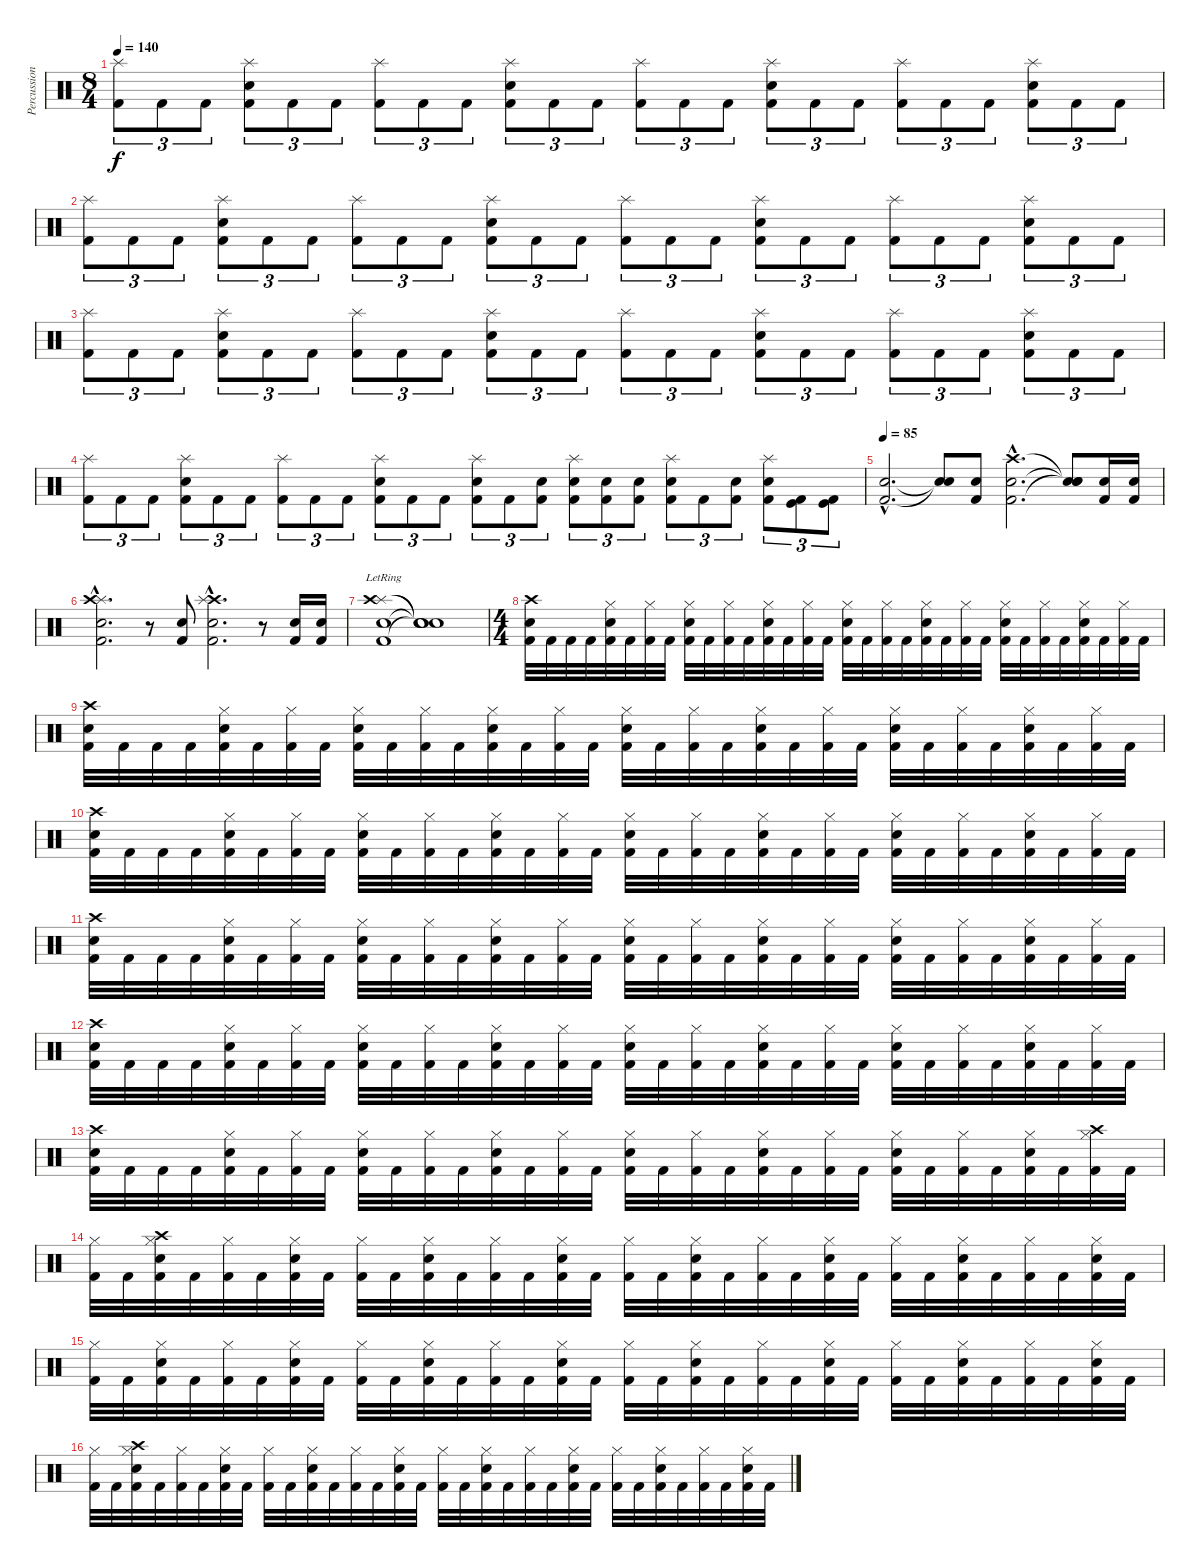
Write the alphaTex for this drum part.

\track ("Percussion" "Percussion") {instrument percussion}
\staff {score}
\articulation defaults
\ts (8 4)
\tempo 140
\clef neutral
\ks c
("Splash (hit)" "Kick (hit) 2").8{tu (3 2) dy f} "Kick (hit) 2".8{tu (3 2)} "Kick (hit) 2".8{tu (3 2)} ("Splash (hit)" "Snare (hit) 2" "Kick (hit) 2").8{tu (3 2)} "Kick (hit) 2".8{tu (3 2)} "Kick (hit) 2".8{tu (3 2)} ("Splash (hit)" "Kick (hit) 2").8{tu (3 2)} "Kick (hit) 2".8{tu (3 2)} "Kick (hit) 2".8{tu (3 2)} ("Splash (hit)" "Snare (hit) 2" "Kick (hit) 2").8{tu (3 2)} "Kick (hit) 2".8{tu (3 2)} "Kick (hit) 2".8{tu (3 2)} ("Splash (hit)" "Kick (hit) 2").8{tu (3 2)} "Kick (hit) 2".8{tu (3 2)} "Kick (hit) 2".8{tu (3 2)} ("Splash (hit)" "Snare (hit) 2" "Kick (hit) 2").8{tu (3 2)} "Kick (hit) 2".8{tu (3 2)} "Kick (hit) 2".8{tu (3 2)} ("Splash (hit)" "Kick (hit) 2").8{tu (3 2)} "Kick (hit) 2".8{tu (3 2)} "Kick (hit) 2".8{tu (3 2)} ("Splash (hit)" "Snare (hit) 2" "Kick (hit) 2").8{tu (3 2)} "Kick (hit) 2".8{tu (3 2)} "Kick (hit) 2".8{tu (3 2)} |
("Splash (hit)" "Kick (hit) 2").8{tu (3 2)} "Kick (hit) 2".8{tu (3 2)} "Kick (hit) 2".8{tu (3 2)} ("Splash (hit)" "Snare (hit) 2" "Kick (hit) 2").8{tu (3 2)} "Kick (hit) 2".8{tu (3 2)} "Kick (hit) 2".8{tu (3 2)} ("Splash (hit)" "Kick (hit) 2").8{tu (3 2)} "Kick (hit) 2".8{tu (3 2)} "Kick (hit) 2".8{tu (3 2)} ("Splash (hit)" "Snare (hit) 2" "Kick (hit) 2").8{tu (3 2)} "Kick (hit) 2".8{tu (3 2)} "Kick (hit) 2".8{tu (3 2)} ("Splash (hit)" "Kick (hit) 2").8{tu (3 2)} "Kick (hit) 2".8{tu (3 2)} "Kick (hit) 2".8{tu (3 2)} ("Splash (hit)" "Snare (hit) 2" "Kick (hit) 2").8{tu (3 2)} "Kick (hit) 2".8{tu (3 2)} "Kick (hit) 2".8{tu (3 2)} ("Splash (hit)" "Kick (hit) 2").8{tu (3 2)} "Kick (hit) 2".8{tu (3 2)} "Kick (hit) 2".8{tu (3 2)} ("Splash (hit)" "Snare (hit) 2" "Kick (hit) 2").8{tu (3 2)} "Kick (hit) 2".8{tu (3 2)} "Kick (hit) 2".8{tu (3 2)} |
("Splash (hit)" "Kick (hit) 2").8{tu (3 2)} "Kick (hit) 2".8{tu (3 2)} "Kick (hit) 2".8{tu (3 2)} ("Splash (hit)" "Snare (hit) 2" "Kick (hit) 2").8{tu (3 2)} "Kick (hit) 2".8{tu (3 2)} "Kick (hit) 2".8{tu (3 2)} ("Splash (hit)" "Kick (hit) 2").8{tu (3 2)} "Kick (hit) 2".8{tu (3 2)} "Kick (hit) 2".8{tu (3 2)} ("Splash (hit)" "Snare (hit) 2" "Kick (hit) 2").8{tu (3 2)} "Kick (hit) 2".8{tu (3 2)} "Kick (hit) 2".8{tu (3 2)} ("Splash (hit)" "Kick (hit) 2").8{tu (3 2)} "Kick (hit) 2".8{tu (3 2)} "Kick (hit) 2".8{tu (3 2)} ("Splash (hit)" "Snare (hit) 2" "Kick (hit) 2").8{tu (3 2)} "Kick (hit) 2".8{tu (3 2)} "Kick (hit) 2".8{tu (3 2)} ("Splash (hit)" "Kick (hit) 2").8{tu (3 2)} "Kick (hit) 2".8{tu (3 2)} "Kick (hit) 2".8{tu (3 2)} ("Splash (hit)" "Snare (hit) 2" "Kick (hit) 2").8{tu (3 2)} "Kick (hit) 2".8{tu (3 2)} "Kick (hit) 2".8{tu (3 2)} |
("Splash (hit)" "Kick (hit) 2").8{tu (3 2)} "Kick (hit) 2".8{tu (3 2)} "Kick (hit) 2".8{tu (3 2)} ("Splash (hit)" "Snare (hit) 2" "Kick (hit) 2").8{tu (3 2)} "Kick (hit) 2".8{tu (3 2)} "Kick (hit) 2".8{tu (3 2)} ("Splash (hit)" "Kick (hit) 2").8{tu (3 2)} "Kick (hit) 2".8{tu (3 2)} "Kick (hit) 2".8{tu (3 2)} ("Splash (hit)" "Snare (hit) 2" "Kick (hit) 2").8{tu (3 2)} "Kick (hit) 2".8{tu (3 2)} "Kick (hit) 2".8{tu (3 2)} ("Splash (hit)" "Snare (hit) 2" "Kick (hit) 2").8{tu (3 2)} "Kick (hit) 2".8{tu (3 2)} ("Snare (hit) 2" "Kick (hit) 2").8{tu (3 2)} ("Splash (hit)" "Snare (hit) 2" "Kick (hit) 2").8{tu (3 2)} ("Snare (hit) 2" "Kick (hit) 2").8{tu (3 2)} ("Snare (hit) 2" "Kick (hit) 2").8{tu (3 2)} ("Splash (hit)" "Snare (hit) 2" "Kick (hit) 2").8{tu (3 2)} "Kick (hit) 2".8{tu (3 2)} ("Snare (hit) 2" "Kick (hit) 2").8{tu (3 2)} ("Splash (hit)" "Snare (hit) 2" "Kick (hit) 2").8{tu (3 2)} ("Kick (hit)" "Kick (hit) 2").8{tu (3 2)} ("Kick (hit)" "Kick (hit) 2").8{tu (3 2)} |
\tempo 85
("Snare (hit) 2"{hac} "Kick (hit) 2"{hac}).2{d} ("Snare (hit)"{t} "Snare (hit)"{t}).8 ("Snare (hit) 2" "Kick (hit) 2").8 ("Crash high (hit)"{hac} "Snare (hit) 2"{hac} "Kick (hit) 2"{hac}).2{d} ("Snare (hit)"{t} "Snare (hit)"{t} "Snare (hit)"{t}).8 ("Snare (hit) 2" "Kick (hit) 2").16 ("Snare (hit) 2" "Kick (hit) 2").16 |
("Kick (hit) 2"{hac} "Splash (hit)"{hac} "Crash high (hit)"{hac} "Snare (hit) 2"{hac}).2{d} r.8 ("Snare (hit) 2" "Kick (hit) 2").8 ("Crash high (hit)"{hac} "Splash (hit)"{hac} "Kick (hit) 2"{hac} "Snare (hit) 2"{hac}).2{d} r.8 ("Snare (hit) 2" "Kick (hit) 2").16 ("Snare (hit) 2" "Kick (hit) 2").16 |
("Kick (hit) 2" "Snare (hit) 2"{lr} "Splash (hit)"{lr} "Crash high (hit)"{lr}).1 ("Snare (hit)"{t} "Snare (hit)"{t} "Snare (hit)"{t} "Snare (hit)"{t}).1 |
\ts (4 4)
("Crash high (hit)" "Snare (hit) 2" "Kick (hit) 2").32 "Kick (hit) 2".32 "Kick (hit) 2".32 "Kick (hit) 2".32 ("Hi-Hat (closed)" "Snare (hit) 2" "Kick (hit) 2").32 "Kick (hit) 2".32 ("Hi-Hat (closed)" "Kick (hit) 2").32 "Kick (hit) 2".32 ("Hi-Hat (closed)" "Snare (hit) 2" "Kick (hit) 2").32 "Kick (hit) 2".32 ("Hi-Hat (closed)" "Kick (hit) 2").32 "Kick (hit) 2".32 ("Hi-Hat (closed)" "Snare (hit) 2" "Kick (hit) 2").32 "Kick (hit) 2".32 ("Hi-Hat (closed)" "Kick (hit) 2").32 "Kick (hit) 2".32 ("Hi-Hat (closed)" "Snare (hit) 2" "Kick (hit) 2").32 "Kick (hit) 2".32 ("Hi-Hat (closed)" "Kick (hit) 2").32 "Kick (hit) 2".32 ("Hi-Hat (closed)" "Snare (hit) 2" "Kick (hit) 2").32 "Kick (hit) 2".32 ("Hi-Hat (closed)" "Kick (hit) 2").32 "Kick (hit) 2".32 ("Hi-Hat (closed)" "Snare (hit) 2" "Kick (hit) 2").32 "Kick (hit) 2".32 ("Hi-Hat (closed)" "Kick (hit) 2").32 "Kick (hit) 2".32 ("Hi-Hat (closed)" "Snare (hit) 2" "Kick (hit) 2").32 "Kick (hit) 2".32 ("Hi-Hat (closed)" "Kick (hit) 2").32 "Kick (hit) 2".32 |
("Crash high (hit)" "Snare (hit) 2" "Kick (hit) 2").32 "Kick (hit) 2".32 "Kick (hit) 2".32 "Kick (hit) 2".32 ("Hi-Hat (closed)" "Snare (hit) 2" "Kick (hit) 2").32 "Kick (hit) 2".32 ("Hi-Hat (closed)" "Kick (hit) 2").32 "Kick (hit) 2".32 ("Hi-Hat (closed)" "Snare (hit) 2" "Kick (hit) 2").32 "Kick (hit) 2".32 ("Hi-Hat (closed)" "Kick (hit) 2").32 "Kick (hit) 2".32 ("Hi-Hat (closed)" "Snare (hit) 2" "Kick (hit) 2").32 "Kick (hit) 2".32 ("Hi-Hat (closed)" "Kick (hit) 2").32 "Kick (hit) 2".32 ("Hi-Hat (closed)" "Snare (hit) 2" "Kick (hit) 2").32 "Kick (hit) 2".32 ("Hi-Hat (closed)" "Kick (hit) 2").32 "Kick (hit) 2".32 ("Hi-Hat (closed)" "Snare (hit) 2" "Kick (hit) 2").32 "Kick (hit) 2".32 ("Hi-Hat (closed)" "Kick (hit) 2").32 "Kick (hit) 2".32 ("Hi-Hat (closed)" "Snare (hit) 2" "Kick (hit) 2").32 "Kick (hit) 2".32 ("Hi-Hat (closed)" "Kick (hit) 2").32 "Kick (hit) 2".32 ("Hi-Hat (closed)" "Snare (hit) 2" "Kick (hit) 2").32 "Kick (hit) 2".32 ("Hi-Hat (closed)" "Kick (hit) 2").32 "Kick (hit) 2".32 |
("Crash high (hit)" "Snare (hit) 2" "Kick (hit) 2").32 "Kick (hit) 2".32 "Kick (hit) 2".32 "Kick (hit) 2".32 ("Hi-Hat (closed)" "Snare (hit) 2" "Kick (hit) 2").32 "Kick (hit) 2".32 ("Hi-Hat (closed)" "Kick (hit) 2").32 "Kick (hit) 2".32 ("Hi-Hat (closed)" "Snare (hit) 2" "Kick (hit) 2").32 "Kick (hit) 2".32 ("Hi-Hat (closed)" "Kick (hit) 2").32 "Kick (hit) 2".32 ("Hi-Hat (closed)" "Snare (hit) 2" "Kick (hit) 2").32 "Kick (hit) 2".32 ("Hi-Hat (closed)" "Kick (hit) 2").32 "Kick (hit) 2".32 ("Hi-Hat (closed)" "Snare (hit) 2" "Kick (hit) 2").32 "Kick (hit) 2".32 ("Hi-Hat (closed)" "Kick (hit) 2").32 "Kick (hit) 2".32 ("Hi-Hat (closed)" "Snare (hit) 2" "Kick (hit) 2").32 "Kick (hit) 2".32 ("Hi-Hat (closed)" "Kick (hit) 2").32 "Kick (hit) 2".32 ("Hi-Hat (closed)" "Snare (hit) 2" "Kick (hit) 2").32 "Kick (hit) 2".32 ("Hi-Hat (closed)" "Kick (hit) 2").32 "Kick (hit) 2".32 ("Hi-Hat (closed)" "Snare (hit) 2" "Kick (hit) 2").32 "Kick (hit) 2".32 ("Hi-Hat (closed)" "Kick (hit) 2").32 "Kick (hit) 2".32 |
("Crash high (hit)" "Snare (hit) 2" "Kick (hit) 2").32 "Kick (hit) 2".32 "Kick (hit) 2".32 "Kick (hit) 2".32 ("Hi-Hat (closed)" "Snare (hit) 2" "Kick (hit) 2").32 "Kick (hit) 2".32 ("Hi-Hat (closed)" "Kick (hit) 2").32 "Kick (hit) 2".32 ("Hi-Hat (closed)" "Snare (hit) 2" "Kick (hit) 2").32 "Kick (hit) 2".32 ("Hi-Hat (closed)" "Kick (hit) 2").32 "Kick (hit) 2".32 ("Hi-Hat (closed)" "Snare (hit) 2" "Kick (hit) 2").32 "Kick (hit) 2".32 ("Hi-Hat (closed)" "Kick (hit) 2").32 "Kick (hit) 2".32 ("Hi-Hat (closed)" "Snare (hit) 2" "Kick (hit) 2").32 "Kick (hit) 2".32 ("Hi-Hat (closed)" "Kick (hit) 2").32 "Kick (hit) 2".32 ("Hi-Hat (closed)" "Snare (hit) 2" "Kick (hit) 2").32 "Kick (hit) 2".32 ("Hi-Hat (closed)" "Kick (hit) 2").32 "Kick (hit) 2".32 ("Hi-Hat (closed)" "Snare (hit) 2" "Kick (hit) 2").32 "Kick (hit) 2".32 ("Hi-Hat (closed)" "Kick (hit) 2").32 "Kick (hit) 2".32 ("Hi-Hat (closed)" "Snare (hit) 2" "Kick (hit) 2").32 "Kick (hit) 2".32 ("Hi-Hat (closed)" "Kick (hit) 2").32 "Kick (hit) 2".32 |
("Crash high (hit)" "Snare (hit) 2" "Kick (hit) 2").32 "Kick (hit) 2".32 "Kick (hit) 2".32 "Kick (hit) 2".32 ("Hi-Hat (closed)" "Snare (hit) 2" "Kick (hit) 2").32 "Kick (hit) 2".32 ("Hi-Hat (closed)" "Kick (hit) 2").32 "Kick (hit) 2".32 ("Hi-Hat (closed)" "Snare (hit) 2" "Kick (hit) 2").32 "Kick (hit) 2".32 ("Hi-Hat (closed)" "Kick (hit) 2").32 "Kick (hit) 2".32 ("Hi-Hat (closed)" "Snare (hit) 2" "Kick (hit) 2").32 "Kick (hit) 2".32 ("Hi-Hat (closed)" "Kick (hit) 2").32 "Kick (hit) 2".32 ("Hi-Hat (closed)" "Snare (hit) 2" "Kick (hit) 2").32 "Kick (hit) 2".32 ("Hi-Hat (closed)" "Kick (hit) 2").32 "Kick (hit) 2".32 ("Hi-Hat (closed)" "Snare (hit) 2" "Kick (hit) 2").32 "Kick (hit) 2".32 ("Hi-Hat (closed)" "Kick (hit) 2").32 "Kick (hit) 2".32 ("Hi-Hat (closed)" "Snare (hit) 2" "Kick (hit) 2").32 "Kick (hit) 2".32 ("Hi-Hat (closed)" "Kick (hit) 2").32 "Kick (hit) 2".32 ("Hi-Hat (closed)" "Snare (hit) 2" "Kick (hit) 2").32 "Kick (hit) 2".32 ("Hi-Hat (closed)" "Kick (hit) 2").32 "Kick (hit) 2".32 |
("Crash high (hit)" "Snare (hit) 2" "Kick (hit) 2").32 "Kick (hit) 2".32 "Kick (hit) 2".32 "Kick (hit) 2".32 ("Hi-Hat (closed)" "Snare (hit) 2" "Kick (hit) 2").32 "Kick (hit) 2".32 ("Hi-Hat (closed)" "Kick (hit) 2").32 "Kick (hit) 2".32 ("Hi-Hat (closed)" "Snare (hit) 2" "Kick (hit) 2").32 "Kick (hit) 2".32 ("Hi-Hat (closed)" "Kick (hit) 2").32 "Kick (hit) 2".32 ("Hi-Hat (closed)" "Snare (hit) 2" "Kick (hit) 2").32 "Kick (hit) 2".32 ("Hi-Hat (closed)" "Kick (hit) 2").32 "Kick (hit) 2".32 ("Hi-Hat (closed)" "Snare (hit) 2" "Kick (hit) 2").32 "Kick (hit) 2".32 ("Hi-Hat (closed)" "Kick (hit) 2").32 "Kick (hit) 2".32 ("Hi-Hat (closed)" "Snare (hit) 2" "Kick (hit) 2").32 "Kick (hit) 2".32 ("Hi-Hat (closed)" "Kick (hit) 2").32 "Kick (hit) 2".32 ("Hi-Hat (closed)" "Snare (hit) 2" "Kick (hit) 2").32 "Kick (hit) 2".32 ("Hi-Hat (closed)" "Kick (hit) 2").32 "Kick (hit) 2".32 ("Hi-Hat (closed)" "Snare (hit) 2" "Kick (hit) 2").32 "Kick (hit) 2".32 ("Hi-Hat (closed)" "Kick (hit) 2" "Crash high (hit)").32 "Kick (hit) 2".32 |
("Hi-Hat (closed)" "Kick (hit) 2").32 "Kick (hit) 2".32 ("Hi-Hat (closed)" "Snare (hit) 2" "Kick (hit) 2" "Crash high (hit)").32 "Kick (hit) 2".32 ("Hi-Hat (closed)" "Kick (hit) 2").32 "Kick (hit) 2".32 ("Hi-Hat (closed)" "Snare (hit) 2" "Kick (hit) 2").32 "Kick (hit) 2".32 ("Hi-Hat (closed)" "Kick (hit) 2").32 "Kick (hit) 2".32 ("Hi-Hat (closed)" "Snare (hit) 2" "Kick (hit) 2").32 "Kick (hit) 2".32 ("Hi-Hat (closed)" "Kick (hit) 2").32 "Kick (hit) 2".32 ("Hi-Hat (closed)" "Snare (hit) 2" "Kick (hit) 2").32 "Kick (hit) 2".32 ("Hi-Hat (closed)" "Kick (hit) 2").32 "Kick (hit) 2".32 ("Hi-Hat (closed)" "Snare (hit) 2" "Kick (hit) 2").32 "Kick (hit) 2".32 ("Hi-Hat (closed)" "Kick (hit) 2").32 "Kick (hit) 2".32 ("Hi-Hat (closed)" "Snare (hit) 2" "Kick (hit) 2").32 "Kick (hit) 2".32 ("Hi-Hat (closed)" "Kick (hit) 2").32 "Kick (hit) 2".32 ("Hi-Hat (closed)" "Snare (hit) 2" "Kick (hit) 2").32 "Kick (hit) 2".32 ("Hi-Hat (closed)" "Kick (hit) 2").32 "Kick (hit) 2".32 ("Hi-Hat (closed)" "Snare (hit) 2" "Kick (hit) 2").32 "Kick (hit) 2".32 |
("Hi-Hat (closed)" "Kick (hit) 2").32 "Kick (hit) 2".32 ("Hi-Hat (closed)" "Snare (hit) 2" "Kick (hit) 2").32 "Kick (hit) 2".32 ("Hi-Hat (closed)" "Kick (hit) 2").32 "Kick (hit) 2".32 ("Hi-Hat (closed)" "Snare (hit) 2" "Kick (hit) 2").32 "Kick (hit) 2".32 ("Hi-Hat (closed)" "Kick (hit) 2").32 "Kick (hit) 2".32 ("Hi-Hat (closed)" "Snare (hit) 2" "Kick (hit) 2").32 "Kick (hit) 2".32 ("Hi-Hat (closed)" "Kick (hit) 2").32 "Kick (hit) 2".32 ("Hi-Hat (closed)" "Snare (hit) 2" "Kick (hit) 2").32 "Kick (hit) 2".32 ("Hi-Hat (closed)" "Kick (hit) 2").32 "Kick (hit) 2".32 ("Hi-Hat (closed)" "Snare (hit) 2" "Kick (hit) 2").32 "Kick (hit) 2".32 ("Hi-Hat (closed)" "Kick (hit) 2").32 "Kick (hit) 2".32 ("Hi-Hat (closed)" "Snare (hit) 2" "Kick (hit) 2").32 "Kick (hit) 2".32 ("Hi-Hat (closed)" "Kick (hit) 2").32 "Kick (hit) 2".32 ("Hi-Hat (closed)" "Snare (hit) 2" "Kick (hit) 2").32 "Kick (hit) 2".32 ("Hi-Hat (closed)" "Kick (hit) 2").32 "Kick (hit) 2".32 ("Hi-Hat (closed)" "Snare (hit) 2" "Kick (hit) 2").32 "Kick (hit) 2".32 |
("Hi-Hat (closed)" "Kick (hit) 2").32 "Kick (hit) 2".32 ("Hi-Hat (closed)" "Snare (hit) 2" "Kick (hit) 2" "Crash high (hit)").32 "Kick (hit) 2".32 ("Hi-Hat (closed)" "Kick (hit) 2").32 "Kick (hit) 2".32 ("Hi-Hat (closed)" "Snare (hit) 2" "Kick (hit) 2").32 "Kick (hit) 2".32 ("Hi-Hat (closed)" "Kick (hit) 2").32 "Kick (hit) 2".32 ("Hi-Hat (closed)" "Snare (hit) 2" "Kick (hit) 2").32 "Kick (hit) 2".32 ("Hi-Hat (closed)" "Kick (hit) 2").32 "Kick (hit) 2".32 ("Hi-Hat (closed)" "Snare (hit) 2" "Kick (hit) 2").32 "Kick (hit) 2".32 ("Hi-Hat (closed)" "Kick (hit) 2").32 "Kick (hit) 2".32 ("Hi-Hat (closed)" "Snare (hit) 2" "Kick (hit) 2").32 "Kick (hit) 2".32 ("Hi-Hat (closed)" "Kick (hit) 2").32 "Kick (hit) 2".32 ("Hi-Hat (closed)" "Snare (hit) 2" "Kick (hit) 2").32 "Kick (hit) 2".32 ("Hi-Hat (closed)" "Kick (hit) 2").32 "Kick (hit) 2".32 ("Hi-Hat (closed)" "Snare (hit) 2" "Kick (hit) 2").32 "Kick (hit) 2".32 ("Hi-Hat (closed)" "Kick (hit) 2").32 "Kick (hit) 2".32 ("Hi-Hat (closed)" "Snare (hit) 2" "Kick (hit) 2").32 "Kick (hit) 2".32
